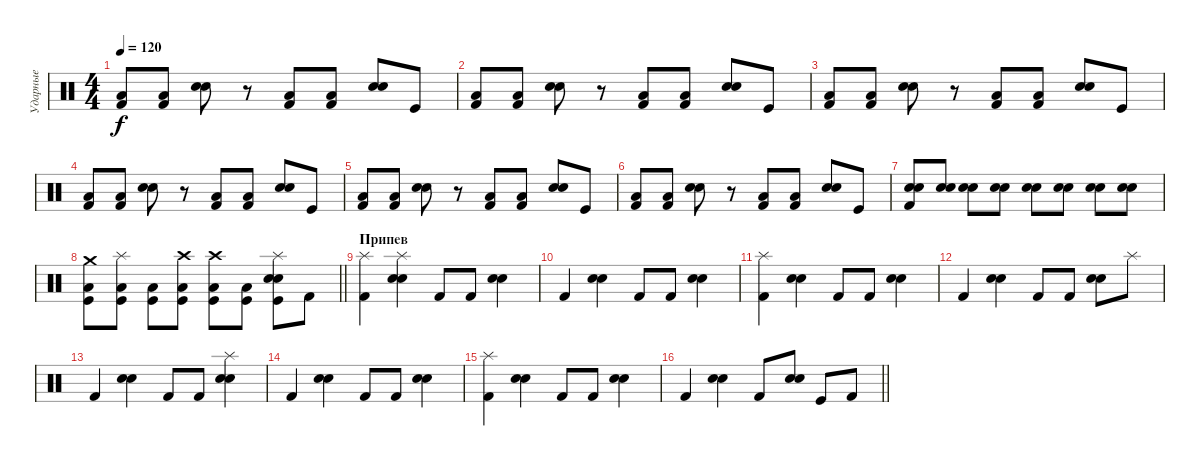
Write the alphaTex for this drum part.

\track ("Ударные" "Ударные") {instrument percussion}
\staff {score}
\articulation defaults
\ts (4 4)
\tempo 120
\clef neutral
\ks c
("Low Floor Tom (hit)" "Kick (hit) 2").8{dy f} ("Low Floor Tom (hit)" "Kick (hit) 2").8 ("Electric Snare (hit)" "Snare (hit) 2").8 r.8 ("Low Floor Tom (hit)" "Kick (hit) 2").8 ("Low Floor Tom (hit)" "Kick (hit) 2").8 ("Electric Snare (hit)" "Snare (hit) 2").8 "Kick (hit)".8 |
("Low Floor Tom (hit)" "Kick (hit) 2").8 ("Low Floor Tom (hit)" "Kick (hit) 2").8 ("Electric Snare (hit)" "Snare (hit) 2").8 r.8 ("Low Floor Tom (hit)" "Kick (hit) 2").8 ("Low Floor Tom (hit)" "Kick (hit) 2").8 ("Electric Snare (hit)" "Snare (hit) 2").8 "Kick (hit)".8 |
("Low Floor Tom (hit)" "Kick (hit) 2").8 ("Low Floor Tom (hit)" "Kick (hit) 2").8 ("Electric Snare (hit)" "Snare (hit) 2").8 r.8 ("Low Floor Tom (hit)" "Kick (hit) 2").8 ("Low Floor Tom (hit)" "Kick (hit) 2").8 ("Electric Snare (hit)" "Snare (hit) 2").8 "Kick (hit)".8 |
("Low Floor Tom (hit)" "Kick (hit) 2").8 ("Low Floor Tom (hit)" "Kick (hit) 2").8 ("Electric Snare (hit)" "Snare (hit) 2").8 r.8 ("Low Floor Tom (hit)" "Kick (hit) 2").8 ("Low Floor Tom (hit)" "Kick (hit) 2").8 ("Electric Snare (hit)" "Snare (hit) 2").8 "Kick (hit)".8 |
("Low Floor Tom (hit)" "Kick (hit) 2").8 ("Low Floor Tom (hit)" "Kick (hit) 2").8 ("Electric Snare (hit)" "Snare (hit) 2").8 r.8 ("Low Floor Tom (hit)" "Kick (hit) 2").8 ("Low Floor Tom (hit)" "Kick (hit) 2").8 ("Electric Snare (hit)" "Snare (hit) 2").8 "Kick (hit)".8 |
("Low Floor Tom (hit)" "Kick (hit) 2").8 ("Low Floor Tom (hit)" "Kick (hit) 2").8 ("Electric Snare (hit)" "Snare (hit) 2").8 r.8 ("Low Floor Tom (hit)" "Kick (hit) 2").8 ("Low Floor Tom (hit)" "Kick (hit) 2").8 ("Electric Snare (hit)" "Snare (hit) 2").8 "Kick (hit)".8{volume 3} |
("Electric Snare (hit)" "Snare (hit) 2" "Kick (hit) 2").8{volume 13} ("Electric Snare (hit)" "Snare (hit) 2").8 ("Electric Snare (hit)" "Snare (hit) 2").8 ("Electric Snare (hit)" "Snare (hit) 2").8 ("Electric Snare (hit)" "Snare (hit) 2").8 ("Electric Snare (hit)" "Snare (hit) 2").8 ("Electric Snare (hit)" "Snare (hit) 2").8 ("Electric Snare (hit)" "Snare (hit) 2").8 |
\barLineRight lightlight
("Crash medium (hit)" "Low Floor Tom (hit)" "Kick (hit)").8 ("Splash (hit)" "Low Floor Tom (hit)" "Kick (hit)").8 ("Low Floor Tom (hit)" "Kick (hit)").8 ("Crash high (hit)" "Low Floor Tom (hit)" "Kick (hit)").8 ("Crash high (hit)" "Low Floor Tom (hit)" "Kick (hit)").8 ("Low Floor Tom (hit)" "Kick (hit)").8 ("Splash (hit)" "Electric Snare (hit)" "Snare (hit) 2" "Kick (hit)").8 "Kick (hit) 2".8 |
\section ("" "Припев")
("Splash (hit)" "Kick (hit) 2").4 ("Splash (hit)" "Electric Snare (hit)" "Snare (hit) 2").4 "Kick (hit) 2".8 "Kick (hit) 2".8 ("Electric Snare (hit)" "Snare (hit) 2").4 |
"Kick (hit) 2".4 ("Electric Snare (hit)" "Snare (hit) 2").4 "Kick (hit) 2".8 "Kick (hit) 2".8 ("Electric Snare (hit)" "Snare (hit) 2").4 |
("Splash (hit)" "Kick (hit) 2").4 ("Electric Snare (hit)" "Snare (hit) 2").4 "Kick (hit) 2".8 "Kick (hit) 2".8 ("Electric Snare (hit)" "Snare (hit) 2").4 |
"Kick (hit) 2".4 ("Electric Snare (hit)" "Snare (hit) 2").4 "Kick (hit) 2".8 "Kick (hit) 2".8 ("Electric Snare (hit)" "Snare (hit) 2").8 "Splash (hit)".8 |
"Kick (hit) 2".4 ("Electric Snare (hit)" "Snare (hit) 2").4 "Kick (hit) 2".8 "Kick (hit) 2".8 ("Splash (hit)" "Electric Snare (hit)" "Snare (hit) 2").4 |
"Kick (hit) 2".4 ("Electric Snare (hit)" "Snare (hit) 2").4 "Kick (hit) 2".8 "Kick (hit) 2".8 ("Electric Snare (hit)" "Snare (hit) 2").4 |
("Splash (hit)" "Kick (hit) 2").4 ("Electric Snare (hit)" "Snare (hit) 2").4 "Kick (hit) 2".8 "Kick (hit) 2".8 ("Electric Snare (hit)" "Snare (hit) 2").4 |
\barLineRight lightlight "Kick (hit) 2".4
("Electric Snare (hit)" "Snare (hit) 2").4 "Kick (hit) 2".8 ("Electric Snare (hit)" "Snare (hit) 2").8 "Kick (hit)".8 "Kick (hit) 2".8
